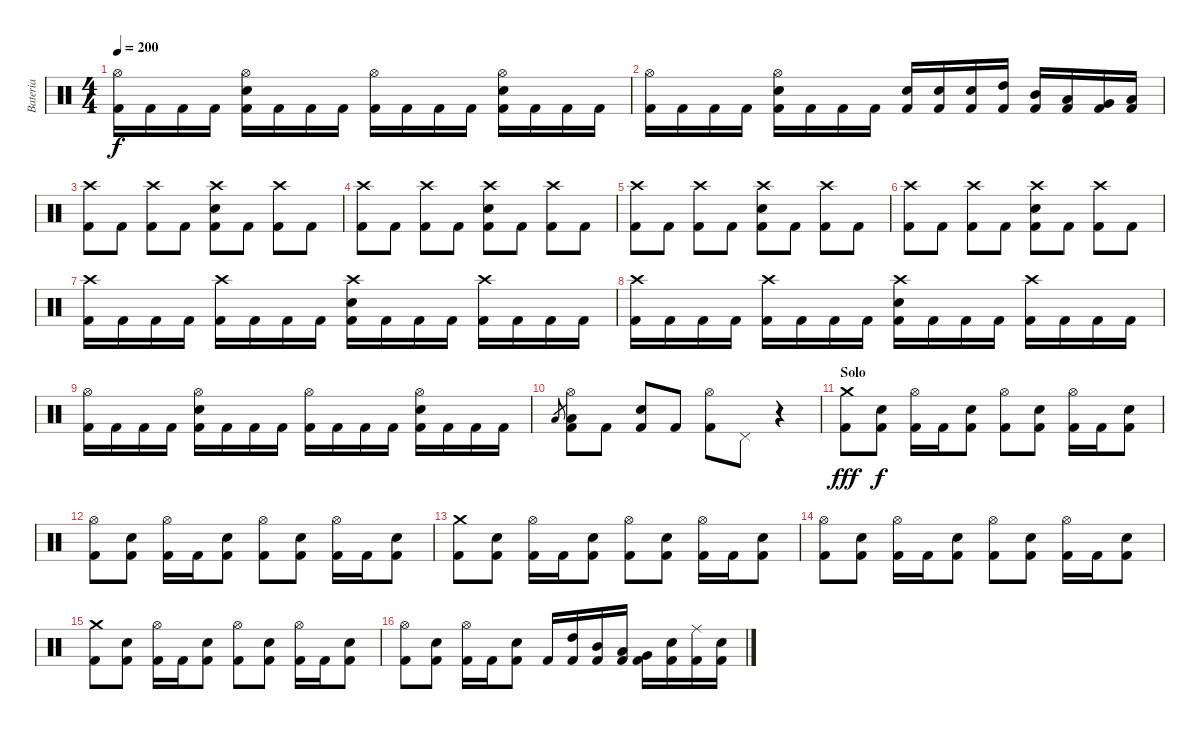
\track ("Bateria" "Bateria") {instrument percussion}
\staff {score}
\articulation defaults
\ts (4 4)
\tempo 200
\clef neutral
\ks c
("Hi-Hat (open)" "Kick (hit) 2").16{dy f} "Kick (hit) 2".16 "Kick (hit) 2".16 "Kick (hit) 2".16 ("Hi-Hat (open)" "Electric Snare (hit)" "Kick (hit) 2").16 "Kick (hit) 2".16 "Kick (hit) 2".16 "Kick (hit) 2".16 ("Hi-Hat (open)" "Kick (hit) 2").16 "Kick (hit) 2".16 "Kick (hit) 2".16 "Kick (hit) 2".16 ("Hi-Hat (open)" "Electric Snare (hit)" "Kick (hit) 2").16 "Kick (hit) 2".16 "Kick (hit) 2".16 "Kick (hit) 2".16 |
("Hi-Hat (open)" "Kick (hit) 2").16 "Kick (hit) 2".16 "Kick (hit) 2".16 "Kick (hit) 2".16 ("Hi-Hat (open)" "Electric Snare (hit)" "Kick (hit) 2").16 "Kick (hit) 2".16 "Kick (hit) 2".16 "Kick (hit) 2".16 ("Electric Snare (hit)" "Kick (hit) 2").16 ("Electric Snare (hit)" "Kick (hit) 2").16 ("Electric Snare (hit)" "Kick (hit) 2").16 ("High Tom (hit)" "Kick (hit) 2").16 ("Mid Tom (hit)" "Kick (hit) 2").16 ("Low Tom (hit)" "Kick (hit) 2").16 ("Very Low Tom (hit)" "Kick (hit) 2").16 ("Low Floor Tom (hit)" "Kick (hit) 2").16 |
("Crash high (hit)" "Kick (hit) 2").8 "Kick (hit) 2".8 ("Crash high (hit)" "Kick (hit) 2").8 "Kick (hit) 2".8 ("Crash high (hit)" "Electric Snare (hit)" "Kick (hit) 2").8 "Kick (hit) 2".8 ("Crash high (hit)" "Kick (hit) 2").8 "Kick (hit) 2".8 |
("Crash high (hit)" "Kick (hit) 2").8 "Kick (hit) 2".8 ("Crash high (hit)" "Kick (hit) 2").8 "Kick (hit) 2".8 ("Crash high (hit)" "Electric Snare (hit)" "Kick (hit) 2").8 "Kick (hit) 2".8 ("Crash high (hit)" "Kick (hit) 2").8 "Kick (hit) 2".8 |
("Crash high (hit)" "Kick (hit) 2").8 "Kick (hit) 2".8 ("Crash high (hit)" "Kick (hit) 2").8 "Kick (hit) 2".8 ("Crash high (hit)" "Electric Snare (hit)" "Kick (hit) 2").8 "Kick (hit) 2".8 ("Crash high (hit)" "Kick (hit) 2").8 "Kick (hit) 2".8 |
("Crash high (hit)" "Kick (hit) 2").8 "Kick (hit) 2".8 ("Crash high (hit)" "Kick (hit) 2").8 "Kick (hit) 2".8 ("Crash high (hit)" "Electric Snare (hit)" "Kick (hit) 2").8 "Kick (hit) 2".8 ("Crash high (hit)" "Kick (hit) 2").8 "Kick (hit) 2".8 |
("Crash high (hit)" "Kick (hit) 2").16 "Kick (hit) 2".16 "Kick (hit) 2".16 "Kick (hit) 2".16 ("Crash high (hit)" "Kick (hit) 2").16 "Kick (hit) 2".16 "Kick (hit) 2".16 "Kick (hit) 2".16 ("Crash high (hit)" "Electric Snare (hit)" "Kick (hit) 2").16 "Kick (hit) 2".16 "Kick (hit) 2".16 "Kick (hit) 2".16 ("Crash high (hit)" "Kick (hit) 2").16 "Kick (hit) 2".16 "Kick (hit) 2".16 "Kick (hit) 2".16 |
("Crash high (hit)" "Kick (hit) 2").16 "Kick (hit) 2".16 "Kick (hit) 2".16 "Kick (hit) 2".16 ("Crash high (hit)" "Kick (hit) 2").16 "Kick (hit) 2".16 "Kick (hit) 2".16 "Kick (hit) 2".16 ("Crash high (hit)" "Electric Snare (hit)" "Kick (hit) 2").16 "Kick (hit) 2".16 "Kick (hit) 2".16 "Kick (hit) 2".16 ("Crash high (hit)" "Kick (hit) 2").16 "Kick (hit) 2".16 "Kick (hit) 2".16 "Kick (hit) 2".16 |
("Hi-Hat (open)" "Kick (hit) 2").16 "Kick (hit) 2".16 "Kick (hit) 2".16 "Kick (hit) 2".16 ("Hi-Hat (open)" "Electric Snare (hit)" "Kick (hit) 2").16 "Kick (hit) 2".16 "Kick (hit) 2".16 "Kick (hit) 2".16 ("Hi-Hat (open)" "Kick (hit) 2").16 "Kick (hit) 2".16 "Kick (hit) 2".16 "Kick (hit) 2".16 ("Hi-Hat (open)" "Electric Snare (hit)" "Kick (hit) 2").16 "Kick (hit) 2".16 "Kick (hit) 2".16 "Kick (hit) 2".16 |
"Low Tom (hit)".8{gr} ("Hi-Hat (open)" "Low Tom (hit)" "Kick (hit) 2").8 "Kick (hit) 2".8 ("Electric Snare (hit)" "Kick (hit) 2").8 "Kick (hit) 2".8 ("Hi-Hat (open)" "Kick (hit) 2").8 "Pedal Hi-Hat (hit)".8 r.4 |
\section ("" "Solo")
("Crash medium (hit)" "Kick (hit) 2").8{dy fff} ("Electric Snare (hit)" "Kick (hit) 2").8{dy f} ("Hi-Hat (open)" "Kick (hit) 2").16 "Kick (hit) 2".16 ("Electric Snare (hit)" "Kick (hit) 2").8 ("Hi-Hat (open)" "Kick (hit) 2").8 ("Electric Snare (hit)" "Kick (hit) 2").8 ("Hi-Hat (open)" "Kick (hit) 2").16 "Kick (hit) 2".16 ("Electric Snare (hit)" "Kick (hit) 2").8 |
("Hi-Hat (open)" "Kick (hit) 2").8 ("Electric Snare (hit)" "Kick (hit) 2").8 ("Hi-Hat (open)" "Kick (hit) 2").16 "Kick (hit) 2".16 ("Electric Snare (hit)" "Kick (hit) 2").8 ("Hi-Hat (open)" "Kick (hit) 2").8 ("Electric Snare (hit)" "Kick (hit) 2").8 ("Hi-Hat (open)" "Kick (hit) 2").16 "Kick (hit) 2".16 ("Electric Snare (hit)" "Kick (hit) 2").8 |
("Crash medium (hit)" "Kick (hit) 2").8 ("Electric Snare (hit)" "Kick (hit) 2").8 ("Hi-Hat (open)" "Kick (hit) 2").16 "Kick (hit) 2".16 ("Electric Snare (hit)" "Kick (hit) 2").8 ("Hi-Hat (open)" "Kick (hit) 2").8 ("Electric Snare (hit)" "Kick (hit) 2").8 ("Hi-Hat (open)" "Kick (hit) 2").16 "Kick (hit) 2".16 ("Electric Snare (hit)" "Kick (hit) 2").8 |
("Hi-Hat (open)" "Kick (hit) 2").8 ("Electric Snare (hit)" "Kick (hit) 2").8 ("Hi-Hat (open)" "Kick (hit) 2").16 "Kick (hit) 2".16 ("Electric Snare (hit)" "Kick (hit) 2").8 ("Hi-Hat (open)" "Kick (hit) 2").8 ("Electric Snare (hit)" "Kick (hit) 2").8 ("Hi-Hat (open)" "Kick (hit) 2").16 "Kick (hit) 2".16 ("Electric Snare (hit)" "Kick (hit) 2").8 |
("Crash medium (hit)" "Kick (hit) 2").8 ("Electric Snare (hit)" "Kick (hit) 2").8 ("Hi-Hat (open)" "Kick (hit) 2").16 "Kick (hit) 2".16 ("Electric Snare (hit)" "Kick (hit) 2").8 ("Hi-Hat (open)" "Kick (hit) 2").8 ("Electric Snare (hit)" "Kick (hit) 2").8 ("Hi-Hat (open)" "Kick (hit) 2").16 "Kick (hit) 2".16 ("Electric Snare (hit)" "Kick (hit) 2").8 |
("Hi-Hat (open)" "Kick (hit) 2").8 ("Electric Snare (hit)" "Kick (hit) 2").8 ("Hi-Hat (open)" "Kick (hit) 2").16 "Kick (hit) 2".16 ("Electric Snare (hit)" "Kick (hit) 2").8 "Kick (hit) 2".16 ("High Tom (hit)" "Kick (hit) 2").16 ("Mid Tom (hit)" "Kick (hit) 2").16 ("Low Tom (hit)" "Kick (hit) 2").16 ("Very Low Tom (hit)" "Kick (hit) 2").16 ("Electric Snare (hit)" "Kick (hit) 2").16 ("Ride (middle)" "Kick (hit) 2").16 ("Electric Snare (hit)" "Kick (hit) 2").16
